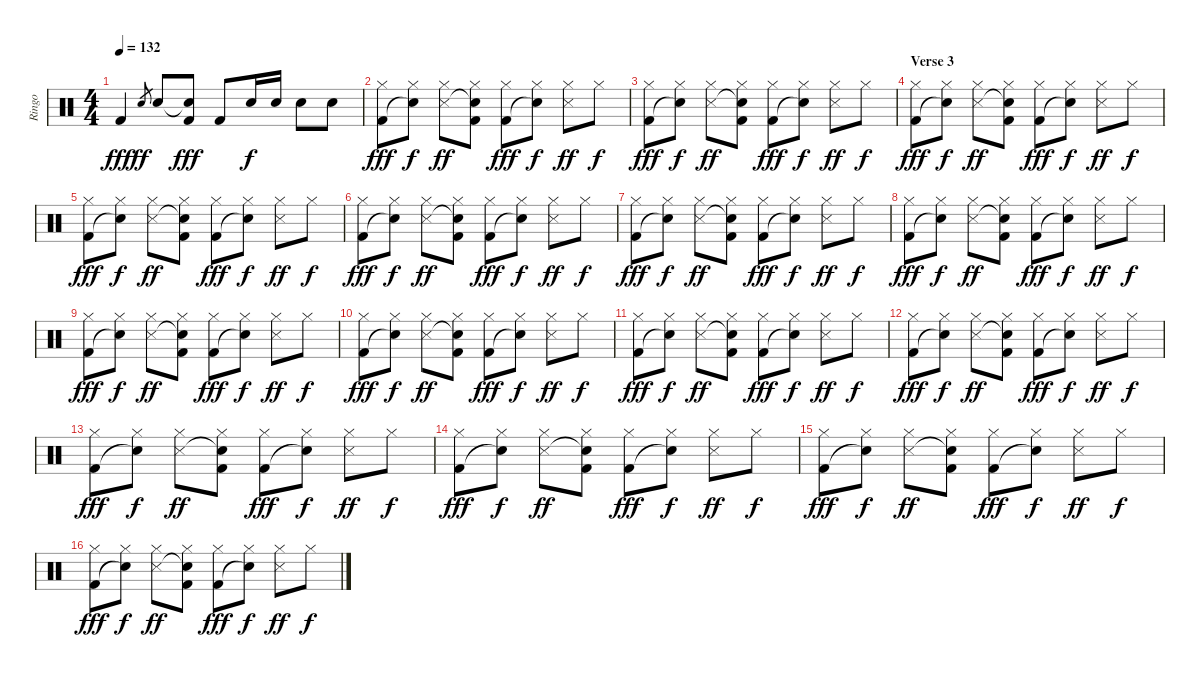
\track ("Ringo" "Ringo") {instrument percussion}
\staff {score}
\articulation defaults
\ts (4 4)
\tempo 132
\clef neutral
\ks c "Kick (hit) 2".4{dy fff} "Snare (hit) 2".8{gr dy ff} "Snare (hit) 2".8
("Snare (hit)"{t} "Kick (hit) 2").8{dy fff} "Kick (hit) 2".8 "Snare (hit) 2".16{dy f} "Snare (hit) 2".16 "Snare (hit) 2".8 "Snare (hit) 2".8 |
("Hi-Hat (closed)" "Kick (hit) 2").8{dy fff} ("Hi-Hat (closed)" "Snare (hit)"{t}).8{dy f} ("Hi-Hat (closed)" "Snare (side stick) 3").8{dy ff} ("Hi-Hat (closed)" "Snare (hit)"{t} "Kick (hit) 2").8 ("Hi-Hat (closed)" "Kick (hit) 2").8{dy fff} ("Hi-Hat (closed)" "Snare (hit)"{t}).8{dy f} ("Hi-Hat (closed)" "Snare (side stick) 3").8{dy ff} "Hi-Hat (closed)".8{dy f} |
("Hi-Hat (closed)" "Kick (hit) 2").8{dy fff} ("Hi-Hat (closed)" "Snare (hit)"{t}).8{dy f} ("Hi-Hat (closed)" "Snare (side stick) 3").8{dy ff} ("Hi-Hat (closed)" "Snare (hit)"{t} "Kick (hit) 2").8 ("Hi-Hat (closed)" "Kick (hit) 2").8{dy fff} ("Hi-Hat (closed)" "Snare (hit)"{t}).8{dy f} ("Hi-Hat (closed)" "Snare (side stick) 3").8{dy ff} "Hi-Hat (closed)".8{dy f} |
\section ("" "Verse 3")
("Hi-Hat (closed)" "Kick (hit) 2").8{dy fff} ("Hi-Hat (closed)" "Snare (hit)"{t}).8{dy f} ("Hi-Hat (closed)" "Snare (side stick) 3").8{dy ff} ("Hi-Hat (closed)" "Snare (hit)"{t} "Kick (hit) 2").8 ("Hi-Hat (closed)" "Kick (hit) 2").8{dy fff} ("Hi-Hat (closed)" "Snare (hit)"{t}).8{dy f} ("Hi-Hat (closed)" "Snare (side stick) 3").8{dy ff} "Hi-Hat (closed)".8{dy f} |
("Hi-Hat (closed)" "Kick (hit) 2").8{dy fff} ("Hi-Hat (closed)" "Snare (hit)"{t}).8{dy f} ("Hi-Hat (closed)" "Snare (side stick) 3").8{dy ff} ("Hi-Hat (closed)" "Snare (hit)"{t} "Kick (hit) 2").8 ("Hi-Hat (closed)" "Kick (hit) 2").8{dy fff} ("Hi-Hat (closed)" "Snare (hit)"{t}).8{dy f} ("Hi-Hat (closed)" "Snare (side stick) 3").8{dy ff} "Hi-Hat (closed)".8{dy f} |
("Hi-Hat (closed)" "Kick (hit) 2").8{dy fff} ("Hi-Hat (closed)" "Snare (hit)"{t}).8{dy f} ("Hi-Hat (closed)" "Snare (side stick) 3").8{dy ff} ("Hi-Hat (closed)" "Snare (hit)"{t} "Kick (hit) 2").8 ("Hi-Hat (closed)" "Kick (hit) 2").8{dy fff} ("Hi-Hat (closed)" "Snare (hit)"{t}).8{dy f} ("Hi-Hat (closed)" "Snare (side stick) 3").8{dy ff} "Hi-Hat (closed)".8{dy f} |
("Hi-Hat (closed)" "Kick (hit) 2").8{dy fff} ("Hi-Hat (closed)" "Snare (hit)"{t}).8{dy f} ("Hi-Hat (closed)" "Snare (side stick) 3").8{dy ff} ("Hi-Hat (closed)" "Snare (hit)"{t} "Kick (hit) 2").8 ("Hi-Hat (closed)" "Kick (hit) 2").8{dy fff} ("Hi-Hat (closed)" "Snare (hit)"{t}).8{dy f} ("Hi-Hat (closed)" "Snare (side stick) 3").8{dy ff} "Hi-Hat (closed)".8{dy f} |
("Hi-Hat (closed)" "Kick (hit) 2").8{dy fff} ("Hi-Hat (closed)" "Snare (hit)"{t}).8{dy f} ("Hi-Hat (closed)" "Snare (side stick) 3").8{dy ff} ("Hi-Hat (closed)" "Snare (hit)"{t} "Kick (hit) 2").8 ("Hi-Hat (closed)" "Kick (hit) 2").8{dy fff} ("Hi-Hat (closed)" "Snare (hit)"{t}).8{dy f} ("Hi-Hat (closed)" "Snare (side stick) 3").8{dy ff} "Hi-Hat (closed)".8{dy f} |
("Hi-Hat (closed)" "Kick (hit) 2").8{dy fff} ("Hi-Hat (closed)" "Snare (hit)"{t}).8{dy f} ("Hi-Hat (closed)" "Snare (side stick) 3").8{dy ff} ("Hi-Hat (closed)" "Snare (hit)"{t} "Kick (hit) 2").8 ("Hi-Hat (closed)" "Kick (hit) 2").8{dy fff} ("Hi-Hat (closed)" "Snare (hit)"{t}).8{dy f} ("Hi-Hat (closed)" "Snare (side stick) 3").8{dy ff} "Hi-Hat (closed)".8{dy f} |
("Hi-Hat (closed)" "Kick (hit) 2").8{dy fff} ("Hi-Hat (closed)" "Snare (hit)"{t}).8{dy f} ("Hi-Hat (closed)" "Snare (side stick) 3").8{dy ff} ("Hi-Hat (closed)" "Snare (hit)"{t} "Kick (hit) 2").8 ("Hi-Hat (closed)" "Kick (hit) 2").8{dy fff} ("Hi-Hat (closed)" "Snare (hit)"{t}).8{dy f} ("Hi-Hat (closed)" "Snare (side stick) 3").8{dy ff} "Hi-Hat (closed)".8{dy f} |
("Hi-Hat (closed)" "Kick (hit) 2").8{dy fff} ("Hi-Hat (closed)" "Snare (hit)"{t}).8{dy f} ("Hi-Hat (closed)" "Snare (side stick) 3").8{dy ff} ("Hi-Hat (closed)" "Snare (hit)"{t} "Kick (hit) 2").8 ("Hi-Hat (closed)" "Kick (hit) 2").8{dy fff} ("Hi-Hat (closed)" "Snare (hit)"{t}).8{dy f} ("Hi-Hat (closed)" "Snare (side stick) 3").8{dy ff} "Hi-Hat (closed)".8{dy f} |
("Hi-Hat (closed)" "Kick (hit) 2").8{dy fff} ("Hi-Hat (closed)" "Snare (hit)"{t}).8{dy f} ("Hi-Hat (closed)" "Snare (side stick) 3").8{dy ff} ("Hi-Hat (closed)" "Snare (hit)"{t} "Kick (hit) 2").8 ("Hi-Hat (closed)" "Kick (hit) 2").8{dy fff} ("Hi-Hat (closed)" "Snare (hit)"{t}).8{dy f} ("Hi-Hat (closed)" "Snare (side stick) 3").8{dy ff} "Hi-Hat (closed)".8{dy f} |
("Hi-Hat (closed)" "Kick (hit) 2").8{dy fff} ("Hi-Hat (closed)" "Snare (hit)"{t}).8{dy f} ("Hi-Hat (closed)" "Snare (side stick) 3").8{dy ff} ("Hi-Hat (closed)" "Snare (hit)"{t} "Kick (hit) 2").8 ("Hi-Hat (closed)" "Kick (hit) 2").8{dy fff} ("Hi-Hat (closed)" "Snare (hit)"{t}).8{dy f} ("Hi-Hat (closed)" "Snare (side stick) 3").8{dy ff} "Hi-Hat (closed)".8{dy f} |
("Hi-Hat (closed)" "Kick (hit) 2").8{dy fff} ("Hi-Hat (closed)" "Snare (hit)"{t}).8{dy f} ("Hi-Hat (closed)" "Snare (side stick) 3").8{dy ff} ("Hi-Hat (closed)" "Snare (hit)"{t} "Kick (hit) 2").8 ("Hi-Hat (closed)" "Kick (hit) 2").8{dy fff} ("Hi-Hat (closed)" "Snare (hit)"{t}).8{dy f} ("Hi-Hat (closed)" "Snare (side stick) 3").8{dy ff} "Hi-Hat (closed)".8{dy f} |
("Hi-Hat (closed)" "Kick (hit) 2").8{dy fff} ("Hi-Hat (closed)" "Snare (hit)"{t}).8{dy f} ("Hi-Hat (closed)" "Snare (side stick) 3").8{dy ff} ("Hi-Hat (closed)" "Snare (hit)"{t} "Kick (hit) 2").8 ("Hi-Hat (closed)" "Kick (hit) 2").8{dy fff} ("Hi-Hat (closed)" "Snare (hit)"{t}).8{dy f} ("Hi-Hat (closed)" "Snare (side stick) 3").8{dy ff} "Hi-Hat (closed)".8{dy f} |
("Hi-Hat (closed)" "Kick (hit) 2").8{dy fff} ("Hi-Hat (closed)" "Snare (hit)"{t}).8{dy f} ("Hi-Hat (closed)" "Snare (side stick) 3").8{dy ff} ("Hi-Hat (closed)" "Snare (hit)"{t} "Kick (hit) 2").8 ("Hi-Hat (closed)" "Kick (hit) 2").8{dy fff} ("Hi-Hat (closed)" "Snare (hit)"{t}).8{dy f} ("Hi-Hat (closed)" "Snare (side stick) 3").8{dy ff} "Hi-Hat (closed)".8{dy f}
